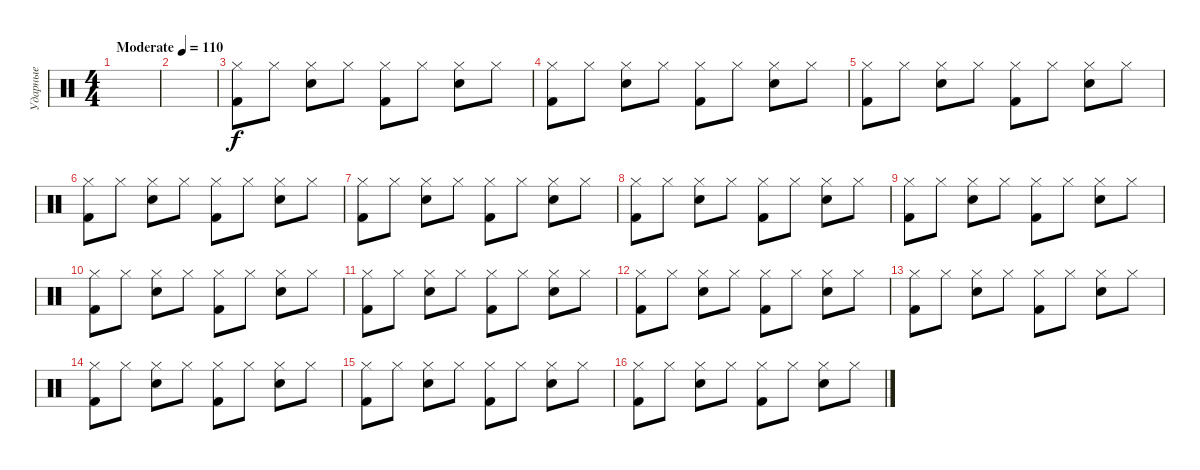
\track ("Ударные" "Ударные") {instrument percussion}
\staff {score}
\articulation defaults
\ts (4 4)
\tempo (110 "Moderate")
\clef neutral
\ks c
|
|
("Hi-Hat (closed)" "Kick (hit) 2").8 "Hi-Hat (closed)".8 ("Hi-Hat (closed)" "Snare (hit) 2").8 "Hi-Hat (closed)".8 ("Hi-Hat (closed)" "Kick (hit) 2").8 "Hi-Hat (closed)".8 ("Hi-Hat (closed)" "Snare (hit) 2").8 "Hi-Hat (closed)".8 |
("Hi-Hat (closed)" "Kick (hit) 2").8 "Hi-Hat (closed)".8 ("Hi-Hat (closed)" "Snare (hit) 2").8 "Hi-Hat (closed)".8 ("Hi-Hat (closed)" "Kick (hit) 2").8 "Hi-Hat (closed)".8 ("Hi-Hat (closed)" "Snare (hit) 2").8 "Hi-Hat (closed)".8 |
("Hi-Hat (closed)" "Kick (hit) 2").8 "Hi-Hat (closed)".8 ("Hi-Hat (closed)" "Snare (hit) 2").8 "Hi-Hat (closed)".8 ("Hi-Hat (closed)" "Kick (hit) 2").8 "Hi-Hat (closed)".8 ("Hi-Hat (closed)" "Snare (hit) 2").8 "Hi-Hat (closed)".8 |
("Hi-Hat (closed)" "Kick (hit) 2").8 "Hi-Hat (closed)".8 ("Hi-Hat (closed)" "Snare (hit) 2").8 "Hi-Hat (closed)".8 ("Hi-Hat (closed)" "Kick (hit) 2").8 "Hi-Hat (closed)".8 ("Hi-Hat (closed)" "Snare (hit) 2").8 "Hi-Hat (closed)".8 |
("Hi-Hat (closed)" "Kick (hit) 2").8 "Hi-Hat (closed)".8 ("Hi-Hat (closed)" "Snare (hit) 2").8 "Hi-Hat (closed)".8 ("Hi-Hat (closed)" "Kick (hit) 2").8 "Hi-Hat (closed)".8 ("Hi-Hat (closed)" "Snare (hit) 2").8 "Hi-Hat (closed)".8 |
("Hi-Hat (closed)" "Kick (hit) 2").8 "Hi-Hat (closed)".8 ("Hi-Hat (closed)" "Snare (hit) 2").8 "Hi-Hat (closed)".8 ("Hi-Hat (closed)" "Kick (hit) 2").8 "Hi-Hat (closed)".8 ("Hi-Hat (closed)" "Snare (hit) 2").8 "Hi-Hat (closed)".8 |
("Hi-Hat (closed)" "Kick (hit) 2").8 "Hi-Hat (closed)".8 ("Hi-Hat (closed)" "Snare (hit) 2").8 "Hi-Hat (closed)".8 ("Hi-Hat (closed)" "Kick (hit) 2").8 "Hi-Hat (closed)".8 ("Hi-Hat (closed)" "Snare (hit) 2").8 "Hi-Hat (closed)".8 |
("Hi-Hat (closed)" "Kick (hit) 2").8 "Hi-Hat (closed)".8 ("Hi-Hat (closed)" "Snare (hit) 2").8 "Hi-Hat (closed)".8 ("Hi-Hat (closed)" "Kick (hit) 2").8 "Hi-Hat (closed)".8 ("Hi-Hat (closed)" "Snare (hit) 2").8 "Hi-Hat (closed)".8 |
("Hi-Hat (closed)" "Kick (hit) 2").8 "Hi-Hat (closed)".8 ("Hi-Hat (closed)" "Snare (hit) 2").8 "Hi-Hat (closed)".8 ("Hi-Hat (closed)" "Kick (hit) 2").8 "Hi-Hat (closed)".8 ("Hi-Hat (closed)" "Snare (hit) 2").8 "Hi-Hat (closed)".8 |
("Hi-Hat (closed)" "Kick (hit) 2").8 "Hi-Hat (closed)".8 ("Hi-Hat (closed)" "Snare (hit) 2").8 "Hi-Hat (closed)".8 ("Hi-Hat (closed)" "Kick (hit) 2").8 "Hi-Hat (closed)".8 ("Hi-Hat (closed)" "Snare (hit) 2").8 "Hi-Hat (closed)".8 |
("Hi-Hat (closed)" "Kick (hit) 2").8 "Hi-Hat (closed)".8 ("Hi-Hat (closed)" "Snare (hit) 2").8 "Hi-Hat (closed)".8 ("Hi-Hat (closed)" "Kick (hit) 2").8 "Hi-Hat (closed)".8 ("Hi-Hat (closed)" "Snare (hit) 2").8 "Hi-Hat (closed)".8 |
("Hi-Hat (closed)" "Kick (hit) 2").8 "Hi-Hat (closed)".8 ("Hi-Hat (closed)" "Snare (hit) 2").8 "Hi-Hat (closed)".8 ("Hi-Hat (closed)" "Kick (hit) 2").8 "Hi-Hat (closed)".8 ("Hi-Hat (closed)" "Snare (hit) 2").8 "Hi-Hat (closed)".8 |
("Hi-Hat (closed)" "Kick (hit) 2").8 "Hi-Hat (closed)".8 ("Hi-Hat (closed)" "Snare (hit) 2").8 "Hi-Hat (closed)".8 ("Hi-Hat (closed)" "Kick (hit) 2").8 "Hi-Hat (closed)".8 ("Hi-Hat (closed)" "Snare (hit) 2").8 "Hi-Hat (closed)".8 |
("Hi-Hat (closed)" "Kick (hit) 2").8 "Hi-Hat (closed)".8 ("Hi-Hat (closed)" "Snare (hit) 2").8 "Hi-Hat (closed)".8 ("Hi-Hat (closed)" "Kick (hit) 2").8 "Hi-Hat (closed)".8 ("Hi-Hat (closed)" "Snare (hit) 2").8 "Hi-Hat (closed)".8
